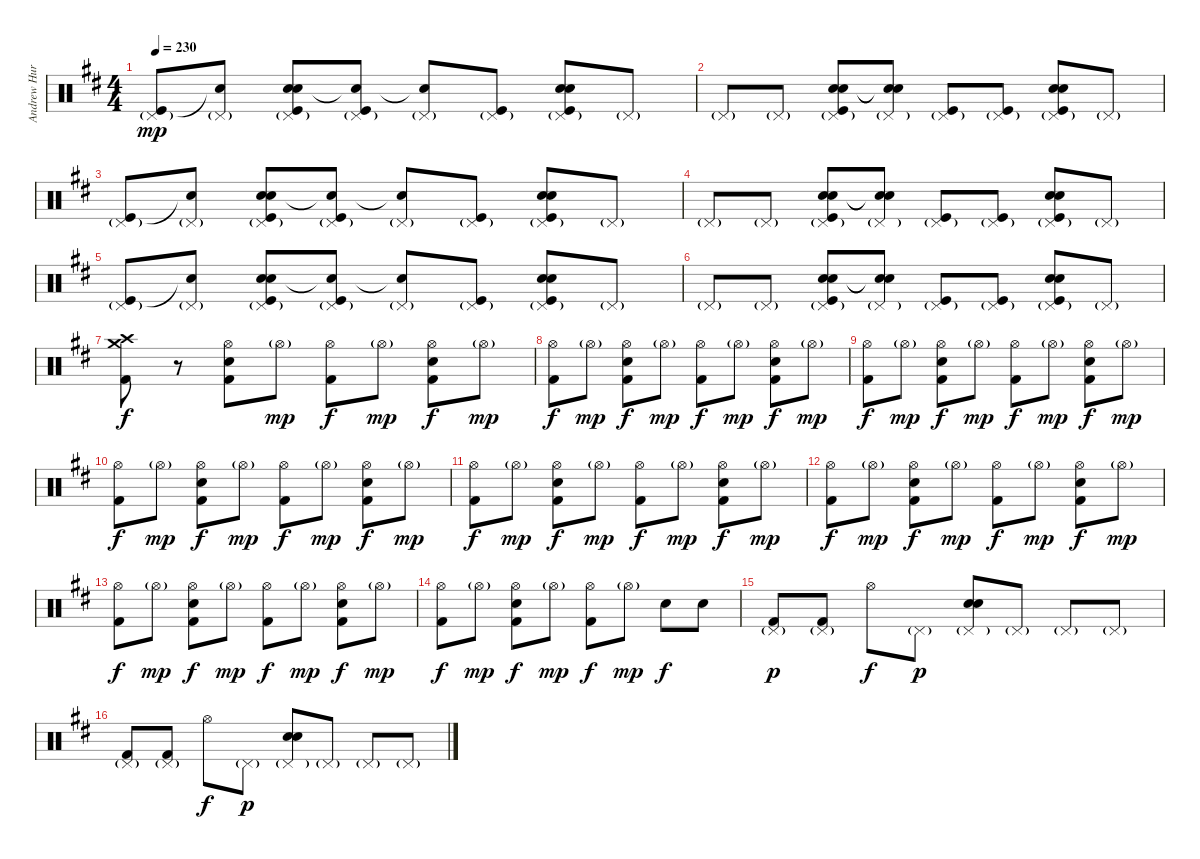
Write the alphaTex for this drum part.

\track ("Andrew Hurley" "Andrew Hur") {instrument percussion}
\staff {score}
\articulation defaults
\ts (4 4)
\tempo 230
\clef neutral
\ks d
("Pedal Hi-Hat (hit)"{g} "Kick (hit)").8{dy mp} ("Pedal Hi-Hat (hit)"{g} "Snare (hit)"{t}).8 ("Pedal Hi-Hat (hit)"{g} "Snare (hit) 2" "Electric Snare (hit)" "Kick (hit)").8 ("Pedal Hi-Hat (hit)"{g} "Snare (hit)"{t} "Kick (hit)").8 ("Pedal Hi-Hat (hit)"{g} "Snare (hit)"{t}).8 ("Pedal Hi-Hat (hit)"{g} "Kick (hit)").8 ("Pedal Hi-Hat (hit)"{g} "Snare (hit) 2" "Electric Snare (hit)" "Kick (hit)").8 "Pedal Hi-Hat (hit)"{g}.8 |
"Pedal Hi-Hat (hit)"{g}.8 "Pedal Hi-Hat (hit)"{g}.8 ("Pedal Hi-Hat (hit)"{g} "Snare (hit) 2" "Electric Snare (hit)" "Kick (hit)").8 ("Pedal Hi-Hat (hit)"{g} "Snare (hit)"{t} "Snare (hit)"{t}).8 ("Pedal Hi-Hat (hit)"{g} "Kick (hit)").8 ("Pedal Hi-Hat (hit)"{g} "Kick (hit)").8 ("Pedal Hi-Hat (hit)"{g} "Snare (hit) 2" "Electric Snare (hit)" "Kick (hit)").8 "Pedal Hi-Hat (hit)"{g}.8 |
("Pedal Hi-Hat (hit)"{g} "Kick (hit)").8 ("Pedal Hi-Hat (hit)"{g} "Snare (hit)"{t}).8 ("Pedal Hi-Hat (hit)"{g} "Snare (hit) 2" "Electric Snare (hit)" "Kick (hit)").8 ("Pedal Hi-Hat (hit)"{g} "Snare (hit)"{t} "Kick (hit)").8 ("Pedal Hi-Hat (hit)"{g} "Snare (hit)"{t}).8 ("Pedal Hi-Hat (hit)"{g} "Kick (hit)").8 ("Pedal Hi-Hat (hit)"{g} "Snare (hit) 2" "Electric Snare (hit)" "Kick (hit)").8 "Pedal Hi-Hat (hit)"{g}.8 |
"Pedal Hi-Hat (hit)"{g}.8 "Pedal Hi-Hat (hit)"{g}.8 ("Pedal Hi-Hat (hit)"{g} "Snare (hit) 2" "Electric Snare (hit)" "Kick (hit)").8 ("Pedal Hi-Hat (hit)"{g} "Snare (hit)"{t} "Snare (hit)"{t}).8 ("Pedal Hi-Hat (hit)"{g} "Kick (hit)").8 ("Pedal Hi-Hat (hit)"{g} "Kick (hit)").8 ("Pedal Hi-Hat (hit)"{g} "Snare (hit) 2" "Electric Snare (hit)" "Kick (hit)").8 "Pedal Hi-Hat (hit)"{g}.8 |
("Pedal Hi-Hat (hit)"{g} "Kick (hit)").8 ("Pedal Hi-Hat (hit)"{g} "Snare (hit)"{t}).8 ("Pedal Hi-Hat (hit)"{g} "Snare (hit) 2" "Electric Snare (hit)" "Kick (hit)").8 ("Pedal Hi-Hat (hit)"{g} "Snare (hit)"{t} "Kick (hit)").8 ("Pedal Hi-Hat (hit)"{g} "Snare (hit)"{t}).8 ("Pedal Hi-Hat (hit)"{g} "Kick (hit)").8 ("Pedal Hi-Hat (hit)"{g} "Snare (hit) 2" "Electric Snare (hit)" "Kick (hit)").8 "Pedal Hi-Hat (hit)"{g}.8 |
"Pedal Hi-Hat (hit)"{g}.8 "Pedal Hi-Hat (hit)"{g}.8 ("Pedal Hi-Hat (hit)"{g} "Snare (hit) 2" "Electric Snare (hit)" "Kick (hit)").8 ("Pedal Hi-Hat (hit)"{g} "Snare (hit)"{t} "Snare (hit)"{t}).8 ("Pedal Hi-Hat (hit)"{g} "Kick (hit)").8 ("Pedal Hi-Hat (hit)"{g} "Kick (hit)").8 ("Pedal Hi-Hat (hit)"{g} "Snare (hit) 2" "Electric Snare (hit)" "Kick (hit)").8 "Pedal Hi-Hat (hit)"{g}.8 |
("Crash high (hit)" "Crash medium (hit)" "Kick (hit) 2").8{dy f} r.8 ("Hi-Hat (open)" "Electric Snare (hit)" "Kick (hit) 2").8 "Hi-Hat (open)"{g}.8{dy mp} ("Hi-Hat (open)" "Kick (hit) 2").8{dy f} "Hi-Hat (open)"{g}.8{dy mp} ("Hi-Hat (open)" "Electric Snare (hit)" "Kick (hit) 2").8{dy f} "Hi-Hat (open)"{g}.8{dy mp} |
("Hi-Hat (open)" "Kick (hit) 2").8{dy f} "Hi-Hat (open)"{g}.8{dy mp} ("Hi-Hat (open)" "Electric Snare (hit)" "Kick (hit) 2").8{dy f} "Hi-Hat (open)"{g}.8{dy mp} ("Hi-Hat (open)" "Kick (hit) 2").8{dy f} "Hi-Hat (open)"{g}.8{dy mp} ("Hi-Hat (open)" "Electric Snare (hit)" "Kick (hit) 2").8{dy f} "Hi-Hat (open)"{g}.8{dy mp} |
("Hi-Hat (open)" "Kick (hit) 2").8{dy f} "Hi-Hat (open)"{g}.8{dy mp} ("Hi-Hat (open)" "Electric Snare (hit)" "Kick (hit) 2").8{dy f} "Hi-Hat (open)"{g}.8{dy mp} ("Hi-Hat (open)" "Kick (hit) 2").8{dy f} "Hi-Hat (open)"{g}.8{dy mp} ("Hi-Hat (open)" "Electric Snare (hit)" "Kick (hit) 2").8{dy f} "Hi-Hat (open)"{g}.8{dy mp} |
("Hi-Hat (open)" "Kick (hit) 2").8{dy f} "Hi-Hat (open)"{g}.8{dy mp} ("Hi-Hat (open)" "Electric Snare (hit)" "Kick (hit) 2").8{dy f} "Hi-Hat (open)"{g}.8{dy mp} ("Hi-Hat (open)" "Kick (hit) 2").8{dy f} "Hi-Hat (open)"{g}.8{dy mp} ("Hi-Hat (open)" "Electric Snare (hit)" "Kick (hit) 2").8{dy f} "Hi-Hat (open)"{g}.8{dy mp} |
("Hi-Hat (open)" "Kick (hit) 2").8{dy f} "Hi-Hat (open)"{g}.8{dy mp} ("Hi-Hat (open)" "Electric Snare (hit)" "Kick (hit) 2").8{dy f} "Hi-Hat (open)"{g}.8{dy mp} ("Hi-Hat (open)" "Kick (hit) 2").8{dy f} "Hi-Hat (open)"{g}.8{dy mp} ("Hi-Hat (open)" "Electric Snare (hit)" "Kick (hit) 2").8{dy f} "Hi-Hat (open)"{g}.8{dy mp} |
("Hi-Hat (open)" "Kick (hit) 2").8{dy f} "Hi-Hat (open)"{g}.8{dy mp} ("Hi-Hat (open)" "Electric Snare (hit)" "Kick (hit) 2").8{dy f} "Hi-Hat (open)"{g}.8{dy mp} ("Hi-Hat (open)" "Kick (hit) 2").8{dy f} "Hi-Hat (open)"{g}.8{dy mp} ("Hi-Hat (open)" "Electric Snare (hit)" "Kick (hit) 2").8{dy f} "Hi-Hat (open)"{g}.8{dy mp} |
("Hi-Hat (open)" "Kick (hit) 2").8{dy f} "Hi-Hat (open)"{g}.8{dy mp} ("Hi-Hat (open)" "Electric Snare (hit)" "Kick (hit) 2").8{dy f} "Hi-Hat (open)"{g}.8{dy mp} ("Hi-Hat (open)" "Kick (hit) 2").8{dy f} "Hi-Hat (open)"{g}.8{dy mp} ("Hi-Hat (open)" "Electric Snare (hit)" "Kick (hit) 2").8{dy f} "Hi-Hat (open)"{g}.8{dy mp} |
("Hi-Hat (open)" "Kick (hit) 2").8{dy f} "Hi-Hat (open)"{g}.8{dy mp} ("Hi-Hat (open)" "Electric Snare (hit)" "Kick (hit) 2").8{dy f} "Hi-Hat (open)"{g}.8{dy mp} ("Hi-Hat (open)" "Kick (hit) 2").8{dy f} "Hi-Hat (open)"{g}.8{dy mp} "Electric Snare (hit)".8{dy f} "Electric Snare (hit)".8 |
("Pedal Hi-Hat (hit)"{g} "Kick (hit) 2").8{dy p} ("Pedal Hi-Hat (hit)"{g} "Kick (hit) 2").8 "Hi-Hat (open)".8{dy f} "Pedal Hi-Hat (hit)"{g}.8{dy p} ("Pedal Hi-Hat (hit)"{g} "Hand Clap (hit)" "Electric Snare (hit)").8 "Pedal Hi-Hat (hit)"{g}.8 "Pedal Hi-Hat (hit)"{g}.8 "Pedal Hi-Hat (hit)"{g}.8 |
("Pedal Hi-Hat (hit)"{g} "Kick (hit) 2").8 ("Pedal Hi-Hat (hit)"{g} "Kick (hit) 2").8 "Hi-Hat (open)".8{dy f} "Pedal Hi-Hat (hit)"{g}.8{dy p} ("Pedal Hi-Hat (hit)"{g} "Hand Clap (hit)" "Electric Snare (hit)").8 "Pedal Hi-Hat (hit)"{g}.8 "Pedal Hi-Hat (hit)"{g}.8 "Pedal Hi-Hat (hit)"{g}.8
